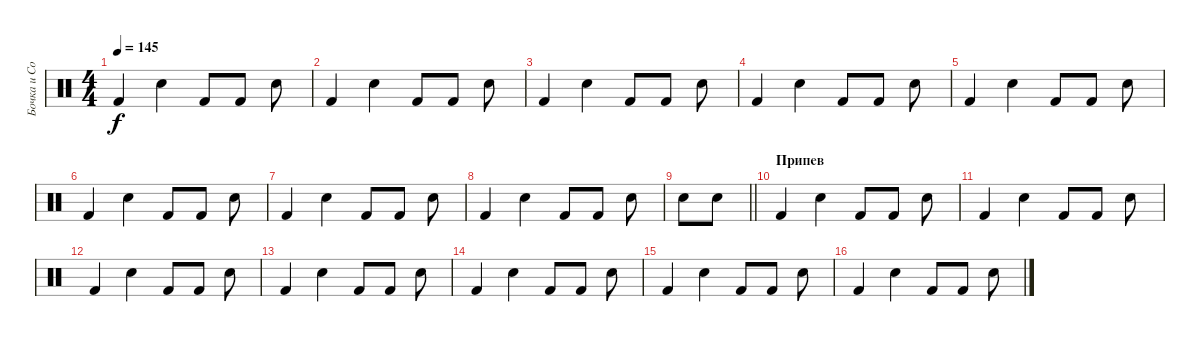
\track ("Бочка и Сольник" "Бочка и Со") {instrument percussion}
\staff {score}
\articulation defaults
\ts (4 4)
\tempo 145
\clef neutral
\ks c "Kick (hit) 2".4{dy f} "Snare (hit) 2".4 "Kick (hit) 2".8 "Kick (hit) 2".8 "Snare (hit) 2".8
|
"Kick (hit) 2".4 "Snare (hit) 2".4 "Kick (hit) 2".8 "Kick (hit) 2".8 "Snare (hit) 2".8 |
"Kick (hit) 2".4 "Snare (hit) 2".4 "Kick (hit) 2".8 "Kick (hit) 2".8 "Snare (hit) 2".8 |
"Kick (hit) 2".4 "Snare (hit) 2".4 "Kick (hit) 2".8 "Kick (hit) 2".8 "Snare (hit) 2".8 |
"Kick (hit) 2".4 "Snare (hit) 2".4 "Kick (hit) 2".8 "Kick (hit) 2".8 "Snare (hit) 2".8 |
"Kick (hit) 2".4 "Snare (hit) 2".4 "Kick (hit) 2".8 "Kick (hit) 2".8 "Snare (hit) 2".8 |
"Kick (hit) 2".4 "Snare (hit) 2".4 "Kick (hit) 2".8 "Kick (hit) 2".8 "Snare (hit) 2".8 |
"Kick (hit) 2".4 "Snare (hit) 2".4 "Kick (hit) 2".8 "Kick (hit) 2".8 "Snare (hit) 2".8 |
\barLineRight lightlight "Snare (hit) 2".8 "Snare (hit) 2".8
|
\section ("" "Припев")
"Kick (hit) 2".4 "Snare (hit) 2".4 "Kick (hit) 2".8 "Kick (hit) 2".8 "Snare (hit) 2".8 |
"Kick (hit) 2".4 "Snare (hit) 2".4 "Kick (hit) 2".8 "Kick (hit) 2".8 "Snare (hit) 2".8 |
"Kick (hit) 2".4 "Snare (hit) 2".4 "Kick (hit) 2".8 "Kick (hit) 2".8 "Snare (hit) 2".8 |
"Kick (hit) 2".4 "Snare (hit) 2".4 "Kick (hit) 2".8 "Kick (hit) 2".8 "Snare (hit) 2".8 |
"Kick (hit) 2".4 "Snare (hit) 2".4 "Kick (hit) 2".8 "Kick (hit) 2".8 "Snare (hit) 2".8 |
"Kick (hit) 2".4 "Snare (hit) 2".4 "Kick (hit) 2".8 "Kick (hit) 2".8 "Snare (hit) 2".8 |
"Kick (hit) 2".4 "Snare (hit) 2".4 "Kick (hit) 2".8 "Kick (hit) 2".8 "Snare (hit) 2".8
